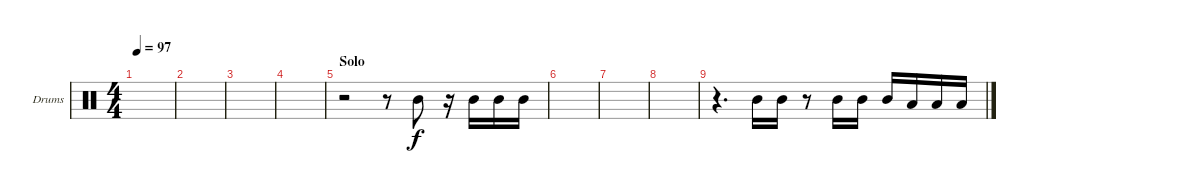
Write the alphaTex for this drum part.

\bracketExtendMode groupsimilarinstruments
\firstSystemTrackNameOrientation horizontal
\otherSystemsTrackNameOrientation horizontal
\track ("Tom" "Drums") {instrument percussion}
\staff {score}
\articulation defaults
\ts (4 4)
\tempo 97
\clef neutral
\ks c
|
|
|
|
\section ("" "Solo")
r.2 r.8 "Mid Tom (hit)".8 r.16 "Mid Tom (hit)".16 "Mid Tom (hit)".16 "Mid Tom (hit)".16 |
|
|
|
r.4{d} "Mid Tom (hit)".16 "Mid Tom (hit)".16 r.8 "Mid Tom (hit)".16 "Mid Tom (hit)".16 "Mid Tom (hit)".16 "Low Tom (hit)".16{dy f} "Low Tom (hit)".16 "Low Tom (hit)".16 |
|
\scale
0.333333 |
|
|
|
\scale
0.333333
